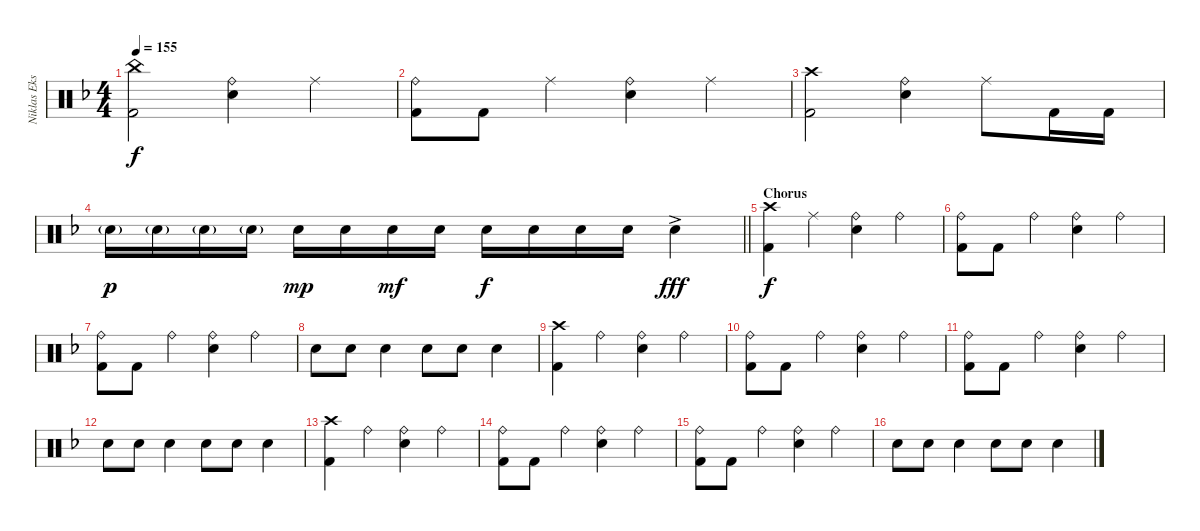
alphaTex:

\track ("Niklas Ekstrand" "Niklas Eks") {instrument percussion}
\staff {score}
\articulation defaults
\ts (4 4)
\tempo 155
\clef neutral
\ks dminor
("China (hit)" "Kick (hit) 2").2{dy f} ("Ride (bell)" "Snare (hit) 2").4 "Ride (middle)".4 |
("Ride (bell)" "Kick (hit) 2").8 "Kick (hit) 2".8 "Ride (middle)".4 ("Ride (bell)" "Snare (hit) 2").4 "Ride (middle)".4 |
("Crash high (hit)" "Kick (hit) 2").2 ("Ride (bell)" "Snare (hit) 2").4 "Ride (middle)".8 "Kick (hit) 2".16 "Kick (hit) 2".16 |
\barLineRight lightlight "Snare (hit) 2"{g}.16{dy p} "Snare (hit) 2"{g}.16 "Snare (hit) 2"{g}.16 "Snare (hit) 2"{g}.16 "Snare (hit) 2".16{dy mp} "Snare (hit) 2".16 "Snare (hit) 2".16{dy mf} "Snare (hit) 2".16 "Snare (hit) 2".16{dy f} "Snare (hit) 2".16 "Snare (hit) 2".16 "Snare (hit) 2".16 "Snare (hit) 2"{ac}.4{dy fff}
|
\section ("" "Chorus")
("Crash high (hit)" "Kick (hit) 2").4{dy f} "Ride (middle)".4 ("Ride (bell)" "Snare (hit) 2").4 "Ride (bell)".4 |
("Ride (bell)" "Kick (hit) 2").8 "Kick (hit) 2".8 "Ride (bell)".4 ("Ride (bell)" "Snare (hit) 2").4 "Ride (bell)".4 |
("Ride (bell)" "Kick (hit) 2").8 "Kick (hit) 2".8 "Ride (bell)".4 ("Ride (bell)" "Snare (hit) 2").4 "Ride (bell)".4 |
"Snare (hit) 2".8 "Snare (hit) 2".8 "Snare (hit) 2".4 "Snare (hit) 2".8 "Snare (hit) 2".8 "Snare (hit) 2".4 |
("Crash high (hit)" "Kick (hit) 2").4 "Ride (bell)".4 ("Ride (bell)" "Snare (hit) 2").4 "Ride (bell)".4 |
("Ride (bell)" "Kick (hit) 2").8 "Kick (hit) 2".8 "Ride (bell)".4 ("Ride (bell)" "Snare (hit) 2").4 "Ride (bell)".4 |
("Ride (bell)" "Kick (hit) 2").8 "Kick (hit) 2".8 "Ride (bell)".4 ("Ride (bell)" "Snare (hit) 2").4 "Ride (bell)".4 |
"Snare (hit) 2".8 "Snare (hit) 2".8 "Snare (hit) 2".4 "Snare (hit) 2".8 "Snare (hit) 2".8 "Snare (hit) 2".4 |
("Crash high (hit)" "Kick (hit) 2").4 "Ride (bell)".4 ("Ride (bell)" "Snare (hit) 2").4 "Ride (bell)".4 |
("Ride (bell)" "Kick (hit) 2").8 "Kick (hit) 2".8 "Ride (bell)".4 ("Ride (bell)" "Snare (hit) 2").4 "Ride (bell)".4 |
("Ride (bell)" "Kick (hit) 2").8 "Kick (hit) 2".8 "Ride (bell)".4 ("Ride (bell)" "Snare (hit) 2").4 "Ride (bell)".4 |
"Snare (hit) 2".8 "Snare (hit) 2".8 "Snare (hit) 2".4 "Snare (hit) 2".8 "Snare (hit) 2".8 "Snare (hit) 2".4
